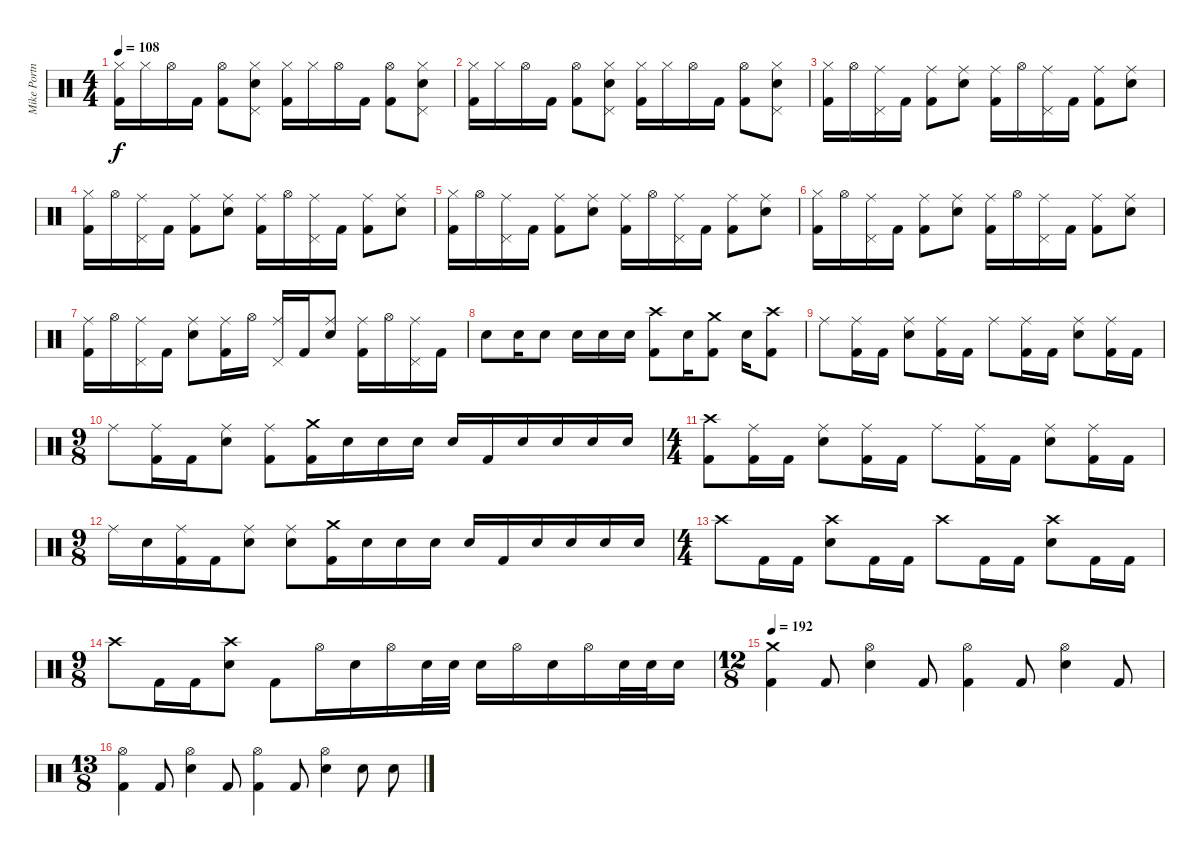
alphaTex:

\track ("Mike Portnoy" "Mike Portn") {instrument percussion}
\staff {score}
\articulation defaults
\ts (4 4)
\tempo 108
\clef neutral
\ks c
("Hi-Hat (closed)" "Kick (hit) 2").16{dy f} "Hi-Hat (closed)".16 "Hi-Hat (open)".16 "Kick (hit) 2".16 ("Hi-Hat (open)" "Kick (hit) 2").8 ("Hi-Hat (closed)" "Snare (hit) 2" "Pedal Hi-Hat (hit)").8 ("Hi-Hat (closed)" "Kick (hit) 2").16 "Hi-Hat (closed)".16 "Hi-Hat (open)".16 "Kick (hit) 2".16 ("Hi-Hat (open)" "Kick (hit) 2").8 ("Hi-Hat (closed)" "Snare (hit) 2" "Pedal Hi-Hat (hit)").8 |
("Hi-Hat (closed)" "Kick (hit) 2").16 "Hi-Hat (closed)".16 "Hi-Hat (open)".16 "Kick (hit) 2".16 ("Hi-Hat (open)" "Kick (hit) 2").8 ("Hi-Hat (closed)" "Snare (hit) 2" "Pedal Hi-Hat (hit)").8 ("Hi-Hat (closed)" "Kick (hit) 2").16 "Hi-Hat (closed)".16 "Hi-Hat (open)".16 "Kick (hit) 2".16 ("Hi-Hat (open)" "Kick (hit) 2").8 ("Hi-Hat (closed)" "Snare (hit) 2" "Pedal Hi-Hat (hit)").8 |
("Hi-Hat (closed)" "Kick (hit) 2").16 "Hi-Hat (open)".16 ("Ride (middle)" "Pedal Hi-Hat (hit)").16 "Kick (hit) 2".16 ("Ride (middle)" "Kick (hit) 2").8 ("Ride (middle)" "Snare (hit) 2").8 ("Ride (middle)" "Kick (hit) 2").16 "Hi-Hat (open)".16 ("Ride (middle)" "Pedal Hi-Hat (hit)").16 "Kick (hit) 2".16 ("Ride (middle)" "Kick (hit) 2").8 ("Ride (middle)" "Snare (hit) 2").8 |
("Hi-Hat (closed)" "Kick (hit) 2").16 "Hi-Hat (open)".16 ("Ride (middle)" "Pedal Hi-Hat (hit)").16 "Kick (hit) 2".16 ("Ride (middle)" "Kick (hit) 2").8 ("Ride (middle)" "Snare (hit) 2").8 ("Ride (middle)" "Kick (hit) 2").16 "Hi-Hat (open)".16 ("Ride (middle)" "Pedal Hi-Hat (hit)").16 "Kick (hit) 2".16 ("Ride (middle)" "Kick (hit) 2").8 ("Ride (middle)" "Snare (hit) 2").8 |
("Hi-Hat (closed)" "Kick (hit) 2").16 "Hi-Hat (open)".16 ("Ride (middle)" "Pedal Hi-Hat (hit)").16 "Kick (hit) 2".16 ("Ride (middle)" "Kick (hit) 2").8 ("Ride (middle)" "Snare (hit) 2").8 ("Ride (middle)" "Kick (hit) 2").16 "Hi-Hat (open)".16 ("Ride (middle)" "Pedal Hi-Hat (hit)").16 "Kick (hit) 2".16 ("Ride (middle)" "Kick (hit) 2").8 ("Ride (middle)" "Snare (hit) 2").8 |
("Hi-Hat (closed)" "Kick (hit) 2").16 "Hi-Hat (open)".16 ("Ride (middle)" "Pedal Hi-Hat (hit)").16 "Kick (hit) 2".16 ("Ride (middle)" "Kick (hit) 2").8 ("Ride (middle)" "Snare (hit) 2").8 ("Ride (middle)" "Kick (hit) 2").16 "Hi-Hat (open)".16 ("Ride (middle)" "Pedal Hi-Hat (hit)").16 "Kick (hit) 2".16 ("Ride (middle)" "Kick (hit) 2").8 ("Ride (middle)" "Snare (hit) 2").8 |
("Ride (middle)" "Kick (hit) 2").16 "Hi-Hat (open)".16 ("Ride (middle)" "Pedal Hi-Hat (hit)").16 "Kick (hit) 2".16 ("Ride (middle)" "Snare (hit) 2").8 ("Ride (middle)" "Kick (hit) 2").16 "Hi-Hat (open)".16 ("Ride (middle)" "Pedal Hi-Hat (hit)").16 "Kick (hit) 2".16 ("Ride (middle)" "Snare (hit) 2").8 ("Ride (middle)" "Kick (hit) 2").16 "Hi-Hat (open)".16 ("Ride (middle)" "Pedal Hi-Hat (hit)").16 "Kick (hit) 2".16 |
"Snare (hit) 2".8 "Snare (hit) 2".16 "Snare (hit) 2".8 "Snare (hit) 2".16 "Snare (hit) 2".16 "Snare (hit) 2".16 ("Crash high (hit)" "Kick (hit) 2").8 "Snare (hit) 2".16 ("Crash medium (hit)" "Kick (hit) 2").8 "Snare (hit) 2".16 ("Crash high (hit)" "Kick (hit) 2").8 |
"Ride (middle)".8 ("Ride (middle)" "Kick (hit) 2").16 "Kick (hit) 2".16 ("Ride (middle)" "Snare (hit) 2").8 ("Ride (middle)" "Kick (hit) 2").16 "Kick (hit) 2".16 "Ride (middle)".8 ("Ride (middle)" "Kick (hit) 2").16 "Kick (hit) 2".16 ("Ride (middle)" "Snare (hit) 2").8 ("Ride (middle)" "Kick (hit) 2").16 "Kick (hit) 2".16 |
\ts (9 8)
"Ride (middle)".8 ("Ride (middle)" "Kick (hit) 2").16 "Kick (hit) 2".16 ("Ride (middle)" "Snare (hit) 2").8 ("Ride (middle)" "Kick (hit) 2").8 ("Crash medium (hit)" "Kick (hit) 2").16 "Snare (hit) 2".16 "Snare (hit) 2".16 "Snare (hit) 2".16 "Snare (hit) 2".16 "Kick (hit) 2".16 "Snare (hit) 2".16 "Snare (hit) 2".16 "Snare (hit) 2".16 "Snare (hit) 2".16 |
\ts (4 4)
("Crash high (hit)" "Kick (hit) 2").8 ("Ride (middle)" "Kick (hit) 2").16 "Kick (hit) 2".16 ("Ride (middle)" "Snare (hit) 2").8 ("Ride (middle)" "Kick (hit) 2").16 "Kick (hit) 2".16 "Ride (middle)".8 ("Ride (middle)" "Kick (hit) 2").16 "Kick (hit) 2".16 ("Ride (middle)" "Snare (hit) 2").8 ("Ride (middle)" "Kick (hit) 2").16 "Kick (hit) 2".16 |
\ts (9 8)
"Ride (middle)".16 "Snare (hit) 2".16 ("Ride (middle)" "Kick (hit) 2").16 "Kick (hit) 2".16 ("Ride (middle)" "Snare (hit) 2").8 ("Ride (middle)" "Snare (hit) 2").8 ("Crash medium (hit)" "Kick (hit) 2").16 "Snare (hit) 2".16 "Snare (hit) 2".16 "Snare (hit) 2".16 "Snare (hit) 2".16 "Kick (hit) 2".16 "Snare (hit) 2".16 "Snare (hit) 2".16 "Snare (hit) 2".16 "Snare (hit) 2".16 |
\ts (4 4)
"Crash high (hit)".8 "Kick (hit) 2".16 "Kick (hit) 2".16 ("Crash high (hit)" "Snare (hit) 2").8 "Kick (hit) 2".16 "Kick (hit) 2".16 "Crash high (hit)".8 "Kick (hit) 2".16 "Kick (hit) 2".16 ("Crash high (hit)" "Snare (hit) 2").8 "Kick (hit) 2".16 "Kick (hit) 2".16 |
\ts (9 8)
"Crash high (hit)".8 "Kick (hit) 2".16 "Kick (hit) 2".16 ("Crash high (hit)" "Snare (hit) 2").8 "Kick (hit) 2".8 "Hi-Hat (open)".16 "Snare (hit) 2".16 "Hi-Hat (open)".16 "Snare (hit) 2".32 "Snare (hit) 2".32 "Snare (hit) 2".16 "Hi-Hat (open)".16 "Snare (hit) 2".16 "Hi-Hat (open)".16 "Snare (hit) 2".32 "Snare (hit) 2".32 "Snare (hit) 2".16 |
\ts (12 8)
\tempo 192
("Crash medium (hit)" "Kick (hit) 2").4 "Kick (hit) 2".8 ("Hi-Hat (open)" "Snare (hit) 2").4 "Kick (hit) 2".8 ("Hi-Hat (open)" "Kick (hit) 2").4 "Kick (hit) 2".8 ("Hi-Hat (open)" "Snare (hit) 2").4 "Kick (hit) 2".8 |
\ts (13 8)
("Hi-Hat (open)" "Kick (hit) 2").4 "Kick (hit) 2".8 ("Hi-Hat (open)" "Snare (hit) 2").4 "Kick (hit) 2".8 ("Hi-Hat (open)" "Kick (hit) 2").4 "Kick (hit) 2".8 ("Hi-Hat (open)" "Snare (hit) 2").4 "Snare (hit) 2".8 "Snare (hit) 2".8
